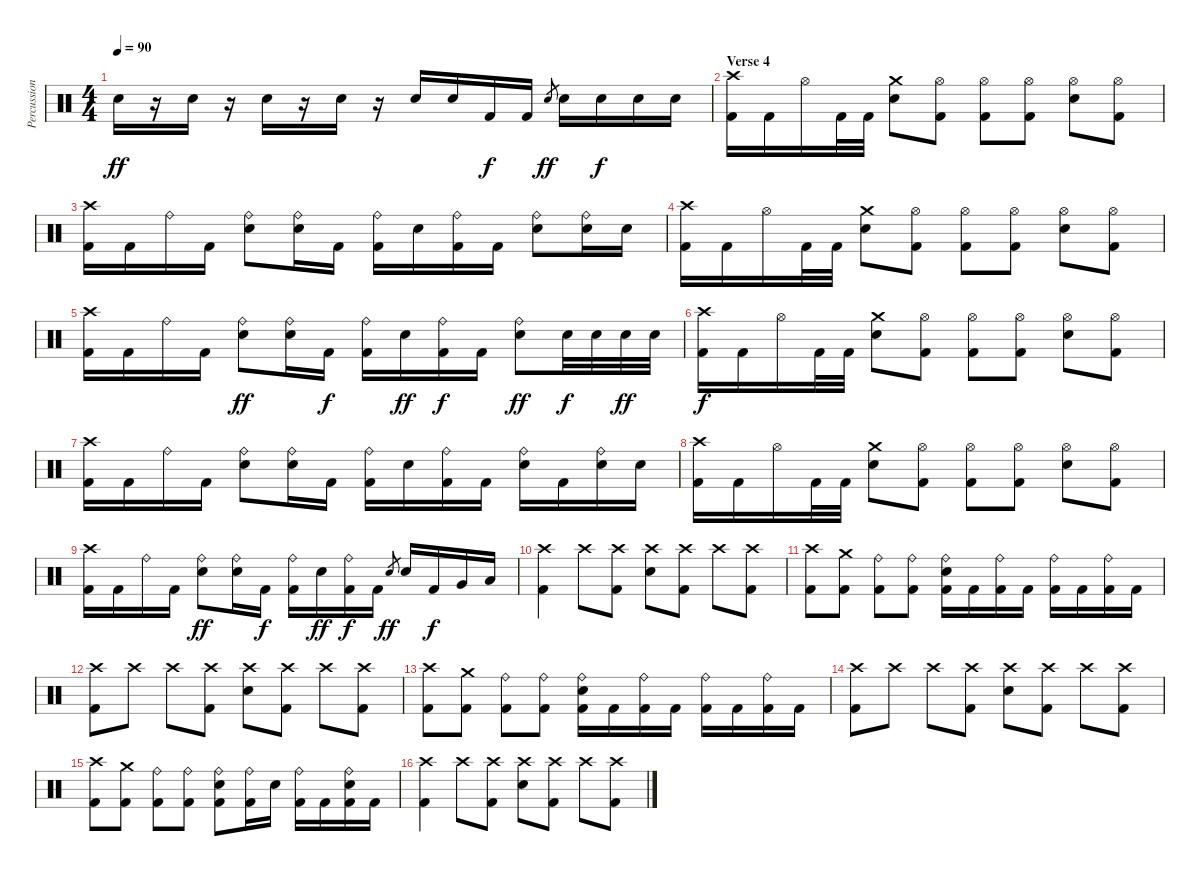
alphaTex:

\track ("Percussion" "Percussion") {instrument percussion}
\staff {score}
\articulation defaults
\ts (4 4)
\tempo 90
\clef neutral
\ks c "Electric Snare (hit)".16{dy ff}
r.16 "Electric Snare (hit)".16 r.16 "Electric Snare (hit)".16 r.16 "Electric Snare (hit)".16 r.16 "Electric Snare (hit)".16 "Electric Snare (hit)".16 "Kick (hit) 2".16{dy f} "Kick (hit) 2".16 "Electric Snare (hit)".8{gr dy ff} "Electric Snare (hit)".16 "Electric Snare (hit)".16{dy f} "Electric Snare (hit)".16 "Electric Snare (hit)".16 |
\section ("" "Verse 4")
("Crash high (hit)" "Kick (hit) 2").16 "Kick (hit) 2".16 "Hi-Hat (open)".16 "Kick (hit) 2".32 "Kick (hit) 2".32 ("Crash medium (hit)" "Electric Snare (hit)").8 ("Hi-Hat (open)" "Kick (hit) 2").8 ("Hi-Hat (open)" "Kick (hit) 2").8 ("Hi-Hat (open)" "Kick (hit) 2").8 ("Hi-Hat (open)" "Electric Snare (hit)").8 ("Hi-Hat (open)" "Kick (hit) 2").8 |
("Crash high (hit)" "Kick (hit) 2").16 "Kick (hit) 2".16 "Ride (bell)".16 "Kick (hit) 2".16 ("Ride (bell)" "Electric Snare (hit)").8 ("Ride (bell)" "Electric Snare (hit)").16 "Kick (hit) 2".16 ("Ride (bell)" "Kick (hit) 2").16 "Electric Snare (hit)".16 ("Ride (bell)" "Kick (hit) 2").16 "Kick (hit) 2".16 ("Ride (bell)" "Electric Snare (hit)").8 ("Ride (bell)" "Electric Snare (hit)").16 "Electric Snare (hit)".16 |
("Crash high (hit)" "Kick (hit) 2").16 "Kick (hit) 2".16 "Hi-Hat (open)".16 "Kick (hit) 2".32 "Kick (hit) 2".32 ("Crash medium (hit)" "Electric Snare (hit)").8 ("Hi-Hat (open)" "Kick (hit) 2").8 ("Hi-Hat (open)" "Kick (hit) 2").8 ("Hi-Hat (open)" "Kick (hit) 2").8 ("Hi-Hat (open)" "Electric Snare (hit)").8 ("Hi-Hat (open)" "Kick (hit) 2").8 |
("Crash high (hit)" "Kick (hit) 2").16 "Kick (hit) 2".16 "Ride (bell)".16 "Kick (hit) 2".16 ("Ride (bell)" "Electric Snare (hit)").8{dy ff} ("Ride (bell)" "Electric Snare (hit)").16 "Kick (hit) 2".16{dy f} ("Ride (bell)" "Kick (hit) 2").16 "Electric Snare (hit)".16{dy ff} ("Ride (bell)" "Kick (hit) 2").16{dy f} "Kick (hit) 2".16 ("Ride (bell)" "Electric Snare (hit)").8{dy ff} "Electric Snare (hit)".32{dy f} "Electric Snare (hit)".32 "Electric Snare (hit)".32{dy ff} "Electric Snare (hit)".32 |
("Crash high (hit)" "Kick (hit) 2").16{dy f} "Kick (hit) 2".16 "Hi-Hat (open)".16 "Kick (hit) 2".32 "Kick (hit) 2".32 ("Crash medium (hit)" "Electric Snare (hit)").8 ("Hi-Hat (open)" "Kick (hit) 2").8 ("Hi-Hat (open)" "Kick (hit) 2").8 ("Hi-Hat (open)" "Kick (hit) 2").8 ("Hi-Hat (open)" "Electric Snare (hit)").8 ("Hi-Hat (open)" "Kick (hit) 2").8 |
("Crash high (hit)" "Kick (hit) 2").16 "Kick (hit) 2".16 "Ride (bell)".16 "Kick (hit) 2".16 ("Ride (bell)" "Electric Snare (hit)").8 ("Ride (bell)" "Electric Snare (hit)").16 "Kick (hit) 2".16 ("Ride (bell)" "Kick (hit) 2").16 "Electric Snare (hit)".16 ("Ride (bell)" "Kick (hit) 2").16 "Kick (hit) 2".16 ("Ride (bell)" "Electric Snare (hit)").16 "Kick (hit) 2".16 ("Ride (bell)" "Electric Snare (hit)").16 "Electric Snare (hit)".16 |
("Crash high (hit)" "Kick (hit) 2").16 "Kick (hit) 2".16 "Hi-Hat (open)".16 "Kick (hit) 2".32 "Kick (hit) 2".32 ("Crash medium (hit)" "Electric Snare (hit)").8 ("Hi-Hat (open)" "Kick (hit) 2").8 ("Hi-Hat (open)" "Kick (hit) 2").8 ("Hi-Hat (open)" "Kick (hit) 2").8 ("Hi-Hat (open)" "Electric Snare (hit)").8 ("Hi-Hat (open)" "Kick (hit) 2").8 |
("Crash high (hit)" "Kick (hit) 2").16 "Kick (hit) 2".16 "Ride (bell)".16 "Kick (hit) 2".16 ("Ride (bell)" "Electric Snare (hit)").8{dy ff} ("Ride (bell)" "Electric Snare (hit)").16 "Kick (hit) 2".16{dy f} ("Ride (bell)" "Kick (hit) 2").16 "Electric Snare (hit)".16{dy ff} ("Ride (bell)" "Kick (hit) 2").16{dy f} "Kick (hit) 2".16 "Electric Snare (hit)".8{gr dy ff} "Electric Snare (hit)".16 "Kick (hit) 2".16{dy f} "Very Low Tom (hit)".16 "Low Floor Tom (hit)".16 |
("Crash high (hit)" "Kick (hit) 2").4 "Crash high (hit)".8 ("Crash high (hit)" "Kick (hit) 2").8 ("Crash high (hit)" "Electric Snare (hit)").8 ("Crash high (hit)" "Kick (hit) 2").8 "Crash high (hit)".8 ("Crash high (hit)" "Kick (hit) 2").8 |
("Crash high (hit)" "Kick (hit) 2").8 ("Crash medium (hit)" "Kick (hit) 2").8 ("Ride (bell)" "Kick (hit) 2").8 ("Ride (bell)" "Kick (hit) 2").8 ("Ride (bell)" "Electric Snare (hit)" "Kick (hit) 2").16 "Kick (hit) 2".16 ("Ride (bell)" "Kick (hit) 2").16 "Kick (hit) 2".16 ("Ride (bell)" "Kick (hit) 2").16 "Kick (hit) 2".16 ("Ride (bell)" "Kick (hit) 2").16 "Kick (hit) 2".16 |
("Crash high (hit)" "Kick (hit) 2").8 "Crash high (hit)".8 "Crash high (hit)".8 ("Crash high (hit)" "Kick (hit) 2").8 ("Crash high (hit)" "Electric Snare (hit)").8 ("Crash high (hit)" "Kick (hit) 2").8 "Crash high (hit)".8 ("Crash high (hit)" "Kick (hit) 2").8 |
("Crash high (hit)" "Kick (hit) 2").8 ("Crash medium (hit)" "Kick (hit) 2").8 ("Ride (bell)" "Kick (hit) 2").8 ("Ride (bell)" "Kick (hit) 2").8 ("Ride (bell)" "Electric Snare (hit)" "Kick (hit) 2").16 "Kick (hit) 2".16 ("Ride (bell)" "Kick (hit) 2").16 "Kick (hit) 2".16 ("Ride (bell)" "Kick (hit) 2").16 "Kick (hit) 2".16 ("Ride (bell)" "Kick (hit) 2").16 "Kick (hit) 2".16 |
("Crash high (hit)" "Kick (hit) 2").8 "Crash high (hit)".8 "Crash high (hit)".8 ("Crash high (hit)" "Kick (hit) 2").8 ("Crash high (hit)" "Electric Snare (hit)").8 ("Crash high (hit)" "Kick (hit) 2").8 "Crash high (hit)".8 ("Crash high (hit)" "Kick (hit) 2").8 |
("Crash high (hit)" "Kick (hit) 2").8 ("Crash medium (hit)" "Kick (hit) 2").8 ("Ride (bell)" "Kick (hit) 2").8 ("Ride (bell)" "Kick (hit) 2").8 ("Ride (bell)" "Electric Snare (hit)" "Kick (hit) 2").8 ("Ride (bell)" "Kick (hit) 2").16 "Electric Snare (hit)".16 ("Ride (bell)" "Kick (hit) 2").16 "Kick (hit) 2".16 ("Ride (bell)" "Electric Snare (hit)" "Kick (hit) 2").16 "Kick (hit) 2".16 |
("Crash high (hit)" "Kick (hit) 2").4 "Crash high (hit)".8 ("Crash high (hit)" "Kick (hit) 2").8 ("Crash high (hit)" "Electric Snare (hit)").8 ("Crash high (hit)" "Kick (hit) 2").8 "Crash high (hit)".8 ("Crash high (hit)" "Kick (hit) 2").8
